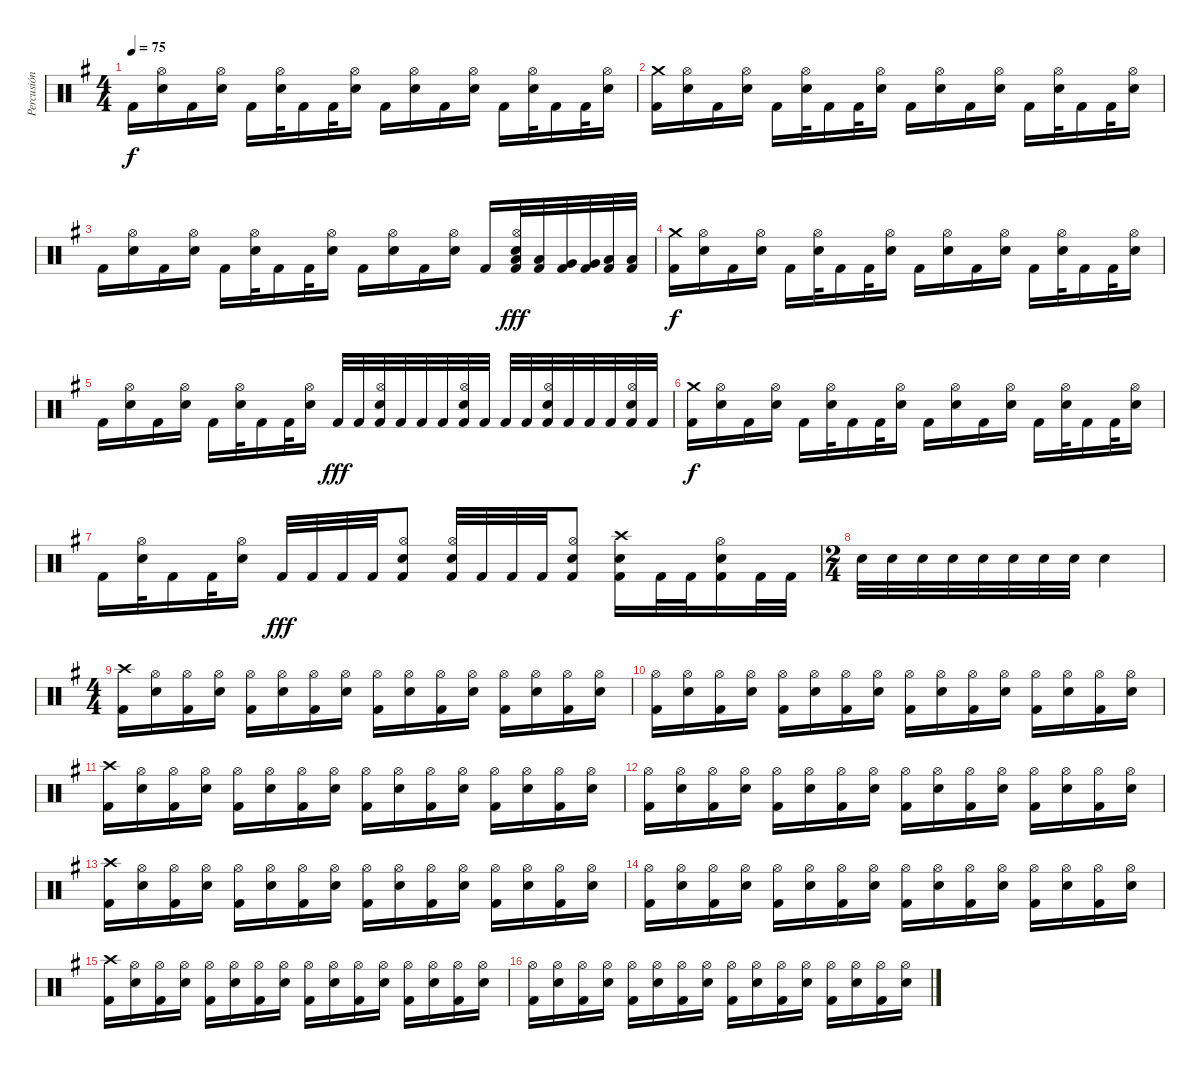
\track ("Percusión" "Percusión") {instrument percussion}
\staff {score}
\articulation defaults
\ts (4 4)
\tempo 75
\clef neutral
\ks g "Kick (hit) 2".16{dy f}
("Hi-Hat (open)" "Electric Snare (hit)").16 "Kick (hit) 2".16 ("Hi-Hat (open)" "Electric Snare (hit)").16 "Kick (hit) 2".16 ("Hi-Hat (open)" "Electric Snare (hit)").32 "Kick (hit) 2".16 "Kick (hit) 2".32 ("Hi-Hat (open)" "Electric Snare (hit)").16 "Kick (hit) 2".16 ("Hi-Hat (open)" "Electric Snare (hit)").16 "Kick (hit) 2".16 ("Hi-Hat (open)" "Electric Snare (hit)").16 "Kick (hit) 2".16 ("Hi-Hat (open)" "Electric Snare (hit)").32 "Kick (hit) 2".16 "Kick (hit) 2".32 ("Hi-Hat (open)" "Electric Snare (hit)").16 |
("Crash medium (hit)" "Kick (hit) 2").16 ("Hi-Hat (open)" "Electric Snare (hit)").16 "Kick (hit) 2".16 ("Hi-Hat (open)" "Electric Snare (hit)").16 "Kick (hit) 2".16 ("Hi-Hat (open)" "Electric Snare (hit)").32 "Kick (hit) 2".16 "Kick (hit) 2".32 ("Hi-Hat (open)" "Electric Snare (hit)").16 "Kick (hit) 2".16 ("Hi-Hat (open)" "Electric Snare (hit)").16 "Kick (hit) 2".16 ("Hi-Hat (open)" "Electric Snare (hit)").16 "Kick (hit) 2".16 ("Hi-Hat (open)" "Electric Snare (hit)").32 "Kick (hit) 2".16 "Kick (hit) 2".32 ("Hi-Hat (open)" "Electric Snare (hit)").16 |
"Kick (hit) 2".16 ("Hi-Hat (open)" "Electric Snare (hit)").16 "Kick (hit) 2".16 ("Hi-Hat (open)" "Electric Snare (hit)").16 "Kick (hit) 2".16 ("Hi-Hat (open)" "Electric Snare (hit)").32 "Kick (hit) 2".16 "Kick (hit) 2".32 ("Hi-Hat (open)" "Electric Snare (hit)").16 "Kick (hit) 2".16 ("Hi-Hat (open)" "Electric Snare (hit)").16 "Kick (hit) 2".16 ("Hi-Hat (open)" "Electric Snare (hit)").16 "Kick (hit) 2".16 ("Hi-Hat (open)" "Electric Snare (hit)" "Low Tom (hit)" "Kick (hit) 2").32{dy fff} ("Low Tom (hit)" "Kick (hit) 2").32 ("Very Low Tom (hit)" "Kick (hit) 2").32 ("Very Low Tom (hit)" "Kick (hit) 2").32 ("Low Floor Tom (hit)" "Kick (hit) 2").32 ("Low Floor Tom (hit)" "Kick (hit) 2").32 |
("Crash medium (hit)" "Kick (hit) 2").16{dy f} ("Hi-Hat (open)" "Electric Snare (hit)").16 "Kick (hit) 2".16 ("Hi-Hat (open)" "Electric Snare (hit)").16 "Kick (hit) 2".16 ("Hi-Hat (open)" "Electric Snare (hit)").32 "Kick (hit) 2".16 "Kick (hit) 2".32 ("Hi-Hat (open)" "Electric Snare (hit)").16 "Kick (hit) 2".16 ("Hi-Hat (open)" "Electric Snare (hit)").16 "Kick (hit) 2".16 ("Hi-Hat (open)" "Electric Snare (hit)").16 "Kick (hit) 2".16 ("Hi-Hat (open)" "Electric Snare (hit)").32 "Kick (hit) 2".16 "Kick (hit) 2".32 ("Hi-Hat (open)" "Electric Snare (hit)").16 |
"Kick (hit) 2".16 ("Hi-Hat (open)" "Electric Snare (hit)").16 "Kick (hit) 2".16 ("Hi-Hat (open)" "Electric Snare (hit)").16 "Kick (hit) 2".16 ("Hi-Hat (open)" "Electric Snare (hit)").32 "Kick (hit) 2".16 "Kick (hit) 2".32 ("Hi-Hat (open)" "Electric Snare (hit)").16 "Kick (hit) 2".32{dy fff} "Kick (hit) 2".32 ("Hi-Hat (open)" "Electric Snare (hit)" "Kick (hit) 2").32 "Kick (hit) 2".32 "Kick (hit) 2".32 "Kick (hit) 2".32 ("Hi-Hat (open)" "Electric Snare (hit)" "Kick (hit) 2").32 "Kick (hit) 2".32 "Kick (hit) 2".32 "Kick (hit) 2".32 ("Hi-Hat (open)" "Electric Snare (hit)" "Kick (hit) 2").32 "Kick (hit) 2".32 "Kick (hit) 2".32 "Kick (hit) 2".32 ("Hi-Hat (open)" "Electric Snare (hit)" "Kick (hit) 2").32 "Kick (hit) 2".32 |
("Crash medium (hit)" "Kick (hit) 2").16{dy f} ("Hi-Hat (open)" "Electric Snare (hit)").16 "Kick (hit) 2".16 ("Hi-Hat (open)" "Electric Snare (hit)").16 "Kick (hit) 2".16 ("Hi-Hat (open)" "Electric Snare (hit)").32 "Kick (hit) 2".16 "Kick (hit) 2".32 ("Hi-Hat (open)" "Electric Snare (hit)").16 "Kick (hit) 2".16 ("Hi-Hat (open)" "Electric Snare (hit)").16 "Kick (hit) 2".16 ("Hi-Hat (open)" "Electric Snare (hit)").16 "Kick (hit) 2".16 ("Hi-Hat (open)" "Electric Snare (hit)").32 "Kick (hit) 2".16 "Kick (hit) 2".32 ("Hi-Hat (open)" "Electric Snare (hit)").16 |
"Kick (hit) 2".16 ("Hi-Hat (open)" "Electric Snare (hit)").32 "Kick (hit) 2".16 "Kick (hit) 2".32 ("Hi-Hat (open)" "Electric Snare (hit)").16 "Kick (hit) 2".32{dy fff} "Kick (hit) 2".32 "Kick (hit) 2".32 "Kick (hit) 2".32 ("Hi-Hat (open)" "Electric Snare (hit)" "Kick (hit) 2").8 ("Hi-Hat (open)" "Electric Snare (hit)" "Kick (hit) 2").32 "Kick (hit) 2".32 "Kick (hit) 2".32 "Kick (hit) 2".32 ("Hi-Hat (open)" "Electric Snare (hit)" "Kick (hit) 2").8 ("Crash high (hit)" "Electric Snare (hit)" "Kick (hit) 2").16 "Kick (hit) 2".32 "Kick (hit) 2".32 ("Hi-Hat (open)" "Electric Snare (hit)" "Kick (hit) 2").16 "Kick (hit) 2".32 "Kick (hit) 2".32 |
\ts (2 4)
"Electric Snare (hit)".32 "Electric Snare (hit)".32 "Electric Snare (hit)".32 "Electric Snare (hit)".32 "Electric Snare (hit)".32 "Electric Snare (hit)".32 "Electric Snare (hit)".32 "Electric Snare (hit)".32 "Electric Snare (hit)".4 |
\ts (4 4)
("Crash high (hit)" "Kick (hit) 2").16 ("Hi-Hat (open)" "Electric Snare (hit)").16 ("Hi-Hat (open)" "Kick (hit) 2").16 ("Hi-Hat (open)" "Electric Snare (hit)").16 ("Hi-Hat (open)" "Kick (hit) 2").16 ("Hi-Hat (open)" "Electric Snare (hit)").16 ("Hi-Hat (open)" "Kick (hit) 2").16 ("Hi-Hat (open)" "Electric Snare (hit)").16 ("Hi-Hat (open)" "Kick (hit) 2").16 ("Hi-Hat (open)" "Electric Snare (hit)").16 ("Hi-Hat (open)" "Kick (hit) 2").16 ("Hi-Hat (open)" "Electric Snare (hit)").16 ("Hi-Hat (open)" "Kick (hit) 2").16 ("Hi-Hat (open)" "Electric Snare (hit)").16 ("Hi-Hat (open)" "Kick (hit) 2").16 ("Hi-Hat (open)" "Electric Snare (hit)").16 |
("Hi-Hat (open)" "Kick (hit) 2").16 ("Hi-Hat (open)" "Electric Snare (hit)").16 ("Hi-Hat (open)" "Kick (hit) 2").16 ("Hi-Hat (open)" "Electric Snare (hit)").16 ("Hi-Hat (open)" "Kick (hit) 2").16 ("Hi-Hat (open)" "Electric Snare (hit)").16 ("Hi-Hat (open)" "Kick (hit) 2").16 ("Hi-Hat (open)" "Electric Snare (hit)").16 ("Hi-Hat (open)" "Kick (hit) 2").16 ("Hi-Hat (open)" "Electric Snare (hit)").16 ("Hi-Hat (open)" "Kick (hit) 2").16 ("Hi-Hat (open)" "Electric Snare (hit)").16 ("Hi-Hat (open)" "Kick (hit) 2").16 ("Hi-Hat (open)" "Electric Snare (hit)").16 ("Hi-Hat (open)" "Kick (hit) 2").16 ("Hi-Hat (open)" "Electric Snare (hit)").16 |
("Crash high (hit)" "Kick (hit) 2").16 ("Hi-Hat (open)" "Electric Snare (hit)").16 ("Hi-Hat (open)" "Kick (hit) 2").16 ("Hi-Hat (open)" "Electric Snare (hit)").16 ("Hi-Hat (open)" "Kick (hit) 2").16 ("Hi-Hat (open)" "Electric Snare (hit)").16 ("Hi-Hat (open)" "Kick (hit) 2").16 ("Hi-Hat (open)" "Electric Snare (hit)").16 ("Hi-Hat (open)" "Kick (hit) 2").16 ("Hi-Hat (open)" "Electric Snare (hit)").16 ("Hi-Hat (open)" "Kick (hit) 2").16 ("Hi-Hat (open)" "Electric Snare (hit)").16 ("Hi-Hat (open)" "Kick (hit) 2").16 ("Hi-Hat (open)" "Electric Snare (hit)").16 ("Hi-Hat (open)" "Kick (hit) 2").16 ("Hi-Hat (open)" "Electric Snare (hit)").16 |
("Hi-Hat (open)" "Kick (hit) 2").16 ("Hi-Hat (open)" "Electric Snare (hit)").16 ("Hi-Hat (open)" "Kick (hit) 2").16 ("Hi-Hat (open)" "Electric Snare (hit)").16 ("Hi-Hat (open)" "Kick (hit) 2").16 ("Hi-Hat (open)" "Electric Snare (hit)").16 ("Hi-Hat (open)" "Kick (hit) 2").16 ("Hi-Hat (open)" "Electric Snare (hit)").16 ("Hi-Hat (open)" "Kick (hit) 2").16 ("Hi-Hat (open)" "Electric Snare (hit)").16 ("Hi-Hat (open)" "Kick (hit) 2").16 ("Hi-Hat (open)" "Electric Snare (hit)").16 ("Hi-Hat (open)" "Kick (hit) 2").16 ("Hi-Hat (open)" "Electric Snare (hit)").16 ("Hi-Hat (open)" "Kick (hit) 2").16 ("Hi-Hat (open)" "Electric Snare (hit)").16 |
("Crash high (hit)" "Kick (hit) 2").16 ("Hi-Hat (open)" "Electric Snare (hit)").16 ("Hi-Hat (open)" "Kick (hit) 2").16 ("Hi-Hat (open)" "Electric Snare (hit)").16 ("Hi-Hat (open)" "Kick (hit) 2").16 ("Hi-Hat (open)" "Electric Snare (hit)").16 ("Hi-Hat (open)" "Kick (hit) 2").16 ("Hi-Hat (open)" "Electric Snare (hit)").16 ("Hi-Hat (open)" "Kick (hit) 2").16 ("Hi-Hat (open)" "Electric Snare (hit)").16 ("Hi-Hat (open)" "Kick (hit) 2").16 ("Hi-Hat (open)" "Electric Snare (hit)").16 ("Hi-Hat (open)" "Kick (hit) 2").16 ("Hi-Hat (open)" "Electric Snare (hit)").16 ("Hi-Hat (open)" "Kick (hit) 2").16 ("Hi-Hat (open)" "Electric Snare (hit)").16 |
("Hi-Hat (open)" "Kick (hit) 2").16 ("Hi-Hat (open)" "Electric Snare (hit)").16 ("Hi-Hat (open)" "Kick (hit) 2").16 ("Hi-Hat (open)" "Electric Snare (hit)").16 ("Hi-Hat (open)" "Kick (hit) 2").16 ("Hi-Hat (open)" "Electric Snare (hit)").16 ("Hi-Hat (open)" "Kick (hit) 2").16 ("Hi-Hat (open)" "Electric Snare (hit)").16 ("Hi-Hat (open)" "Kick (hit) 2").16 ("Hi-Hat (open)" "Electric Snare (hit)").16 ("Hi-Hat (open)" "Kick (hit) 2").16 ("Hi-Hat (open)" "Electric Snare (hit)").16 ("Hi-Hat (open)" "Kick (hit) 2").16 ("Hi-Hat (open)" "Electric Snare (hit)").16 ("Hi-Hat (open)" "Kick (hit) 2").16 ("Hi-Hat (open)" "Electric Snare (hit)").16 |
("Crash high (hit)" "Kick (hit) 2").16 ("Hi-Hat (open)" "Electric Snare (hit)").16 ("Hi-Hat (open)" "Kick (hit) 2").16 ("Hi-Hat (open)" "Electric Snare (hit)").16 ("Hi-Hat (open)" "Kick (hit) 2").16 ("Hi-Hat (open)" "Electric Snare (hit)").16 ("Hi-Hat (open)" "Kick (hit) 2").16 ("Hi-Hat (open)" "Electric Snare (hit)").16 ("Hi-Hat (open)" "Kick (hit) 2").16 ("Hi-Hat (open)" "Electric Snare (hit)").16 ("Hi-Hat (open)" "Kick (hit) 2").16 ("Hi-Hat (open)" "Electric Snare (hit)").16 ("Hi-Hat (open)" "Kick (hit) 2").16 ("Hi-Hat (open)" "Electric Snare (hit)").16 ("Hi-Hat (open)" "Kick (hit) 2").16 ("Hi-Hat (open)" "Electric Snare (hit)").16 |
("Hi-Hat (open)" "Kick (hit) 2").16 ("Hi-Hat (open)" "Electric Snare (hit)").16 ("Hi-Hat (open)" "Kick (hit) 2").16 ("Hi-Hat (open)" "Electric Snare (hit)").16 ("Hi-Hat (open)" "Kick (hit) 2").16 ("Hi-Hat (open)" "Electric Snare (hit)").16 ("Hi-Hat (open)" "Kick (hit) 2").16 ("Hi-Hat (open)" "Electric Snare (hit)").16 ("Hi-Hat (open)" "Kick (hit) 2").16 ("Hi-Hat (open)" "Electric Snare (hit)").16 ("Hi-Hat (open)" "Kick (hit) 2").16 ("Hi-Hat (open)" "Electric Snare (hit)").16 ("Hi-Hat (open)" "Kick (hit) 2").16 ("Hi-Hat (open)" "Electric Snare (hit)").16 ("Hi-Hat (open)" "Kick (hit) 2").16 ("Hi-Hat (open)" "Electric Snare (hit)").16
